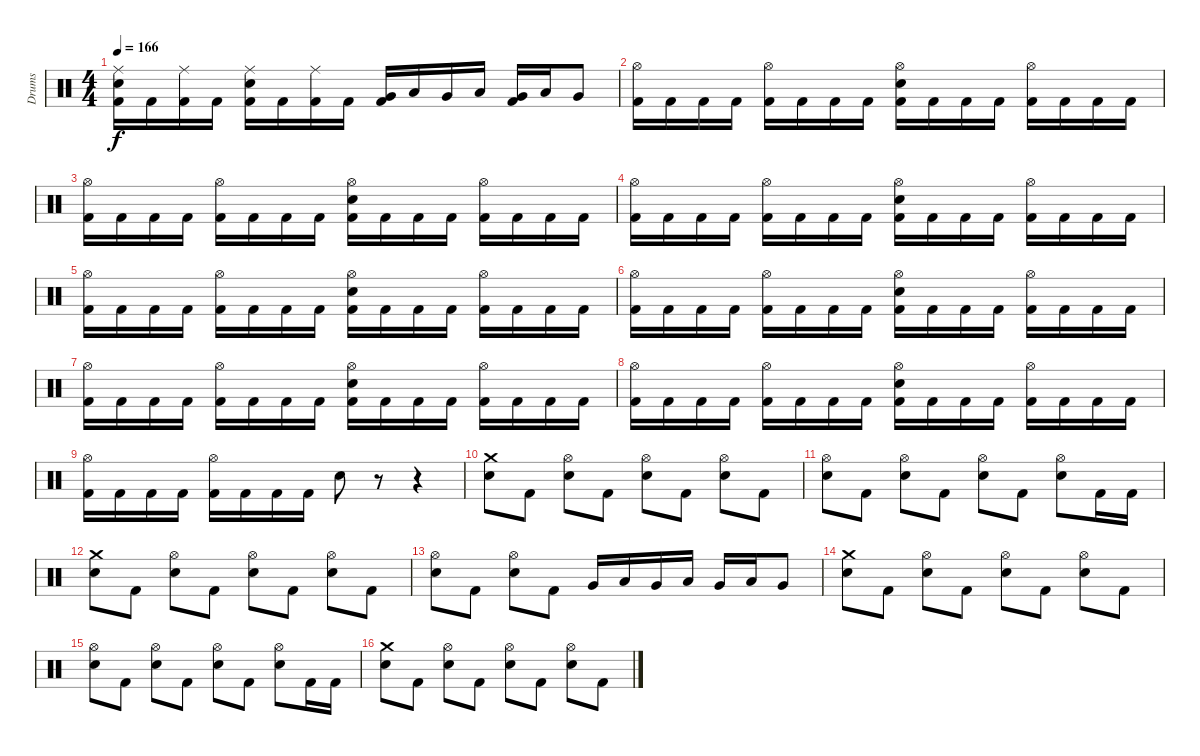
\track ("Drums" "Drums") {instrument percussion}
\staff {score}
\articulation defaults
\ts (4 4)
\tempo 166
\clef neutral
\ks c
("Ride (middle)" "Snare (hit) 2" "Kick (hit) 2").16{dy f} "Kick (hit) 2".16 ("Ride (middle)" "Kick (hit) 2").16 "Kick (hit) 2".16 ("Ride (middle)" "Snare (hit) 2" "Kick (hit) 2").16 "Kick (hit) 2".16 ("Ride (middle)" "Kick (hit) 2").16 "Kick (hit) 2".16 ("Very Low Tom (hit)" "Kick (hit) 2").16 "Low Tom (hit)".16 "Very Low Tom (hit)".16 "Low Tom (hit)".16 ("Very Low Tom (hit)" "Kick (hit) 2").16 "Low Tom (hit)".16 "Very Low Tom (hit)".8 |
("Hi-Hat (open)" "Kick (hit) 2").16 "Kick (hit) 2".16 "Kick (hit) 2".16 "Kick (hit) 2".16 ("Hi-Hat (open)" "Kick (hit) 2").16 "Kick (hit) 2".16 "Kick (hit) 2".16 "Kick (hit) 2".16 ("Hi-Hat (open)" "Snare (hit) 2" "Kick (hit) 2").16 "Kick (hit) 2".16 "Kick (hit) 2".16 "Kick (hit) 2".16 ("Hi-Hat (open)" "Kick (hit) 2").16 "Kick (hit) 2".16 "Kick (hit) 2".16 "Kick (hit) 2".16 |
("Hi-Hat (open)" "Kick (hit) 2").16 "Kick (hit) 2".16 "Kick (hit) 2".16 "Kick (hit) 2".16 ("Hi-Hat (open)" "Kick (hit) 2").16 "Kick (hit) 2".16 "Kick (hit) 2".16 "Kick (hit) 2".16 ("Hi-Hat (open)" "Snare (hit) 2" "Kick (hit) 2").16 "Kick (hit) 2".16 "Kick (hit) 2".16 "Kick (hit) 2".16 ("Hi-Hat (open)" "Kick (hit) 2").16 "Kick (hit) 2".16 "Kick (hit) 2".16 "Kick (hit) 2".16 |
("Hi-Hat (open)" "Kick (hit) 2").16 "Kick (hit) 2".16 "Kick (hit) 2".16 "Kick (hit) 2".16 ("Hi-Hat (open)" "Kick (hit) 2").16 "Kick (hit) 2".16 "Kick (hit) 2".16 "Kick (hit) 2".16 ("Hi-Hat (open)" "Snare (hit) 2" "Kick (hit) 2").16 "Kick (hit) 2".16 "Kick (hit) 2".16 "Kick (hit) 2".16 ("Hi-Hat (open)" "Kick (hit) 2").16 "Kick (hit) 2".16 "Kick (hit) 2".16 "Kick (hit) 2".16 |
("Hi-Hat (open)" "Kick (hit) 2").16 "Kick (hit) 2".16 "Kick (hit) 2".16 "Kick (hit) 2".16 ("Hi-Hat (open)" "Kick (hit) 2").16 "Kick (hit) 2".16 "Kick (hit) 2".16 "Kick (hit) 2".16 ("Hi-Hat (open)" "Snare (hit) 2" "Kick (hit) 2").16 "Kick (hit) 2".16 "Kick (hit) 2".16 "Kick (hit) 2".16 ("Hi-Hat (open)" "Kick (hit) 2").16 "Kick (hit) 2".16 "Kick (hit) 2".16 "Kick (hit) 2".16 |
("Hi-Hat (open)" "Kick (hit) 2").16 "Kick (hit) 2".16 "Kick (hit) 2".16 "Kick (hit) 2".16 ("Hi-Hat (open)" "Kick (hit) 2").16 "Kick (hit) 2".16 "Kick (hit) 2".16 "Kick (hit) 2".16 ("Hi-Hat (open)" "Snare (hit) 2" "Kick (hit) 2").16 "Kick (hit) 2".16 "Kick (hit) 2".16 "Kick (hit) 2".16 ("Hi-Hat (open)" "Kick (hit) 2").16 "Kick (hit) 2".16 "Kick (hit) 2".16 "Kick (hit) 2".16 |
("Hi-Hat (open)" "Kick (hit) 2").16 "Kick (hit) 2".16 "Kick (hit) 2".16 "Kick (hit) 2".16 ("Hi-Hat (open)" "Kick (hit) 2").16 "Kick (hit) 2".16 "Kick (hit) 2".16 "Kick (hit) 2".16 ("Hi-Hat (open)" "Snare (hit) 2" "Kick (hit) 2").16 "Kick (hit) 2".16 "Kick (hit) 2".16 "Kick (hit) 2".16 ("Hi-Hat (open)" "Kick (hit) 2").16 "Kick (hit) 2".16 "Kick (hit) 2".16 "Kick (hit) 2".16 |
("Hi-Hat (open)" "Kick (hit) 2").16 "Kick (hit) 2".16 "Kick (hit) 2".16 "Kick (hit) 2".16 ("Hi-Hat (open)" "Kick (hit) 2").16 "Kick (hit) 2".16 "Kick (hit) 2".16 "Kick (hit) 2".16 ("Hi-Hat (open)" "Snare (hit) 2" "Kick (hit) 2").16 "Kick (hit) 2".16 "Kick (hit) 2".16 "Kick (hit) 2".16 ("Hi-Hat (open)" "Kick (hit) 2").16 "Kick (hit) 2".16 "Kick (hit) 2".16 "Kick (hit) 2".16 |
("Hi-Hat (open)" "Kick (hit) 2").16 "Kick (hit) 2".16 "Kick (hit) 2".16 "Kick (hit) 2".16 ("Hi-Hat (open)" "Kick (hit) 2").16 "Kick (hit) 2".16 "Kick (hit) 2".16 "Kick (hit) 2".16 "Snare (hit) 2".8 r.8 r.4 |
("Crash medium (hit)" "Snare (hit) 2").8 "Kick (hit) 2".8 ("Hi-Hat (open)" "Snare (hit) 2").8 "Kick (hit) 2".8 ("Hi-Hat (open)" "Snare (hit) 2").8 "Kick (hit) 2".8 ("Hi-Hat (open)" "Snare (hit) 2").8 "Kick (hit) 2".8 |
("Hi-Hat (open)" "Snare (hit) 2").8 "Kick (hit) 2".8 ("Hi-Hat (open)" "Snare (hit) 2").8 "Kick (hit) 2".8 ("Hi-Hat (open)" "Snare (hit) 2").8 "Kick (hit) 2".8 ("Hi-Hat (open)" "Snare (hit) 2").8 "Kick (hit) 2".16 "Kick (hit) 2".16 |
("Crash medium (hit)" "Snare (hit) 2").8 "Kick (hit) 2".8 ("Hi-Hat (open)" "Snare (hit) 2").8 "Kick (hit) 2".8 ("Hi-Hat (open)" "Snare (hit) 2").8 "Kick (hit) 2".8 ("Hi-Hat (open)" "Snare (hit) 2").8 "Kick (hit) 2".8 |
("Hi-Hat (open)" "Snare (hit) 2").8 "Kick (hit) 2".8 ("Hi-Hat (open)" "Snare (hit) 2").8 "Kick (hit) 2".8 "Very Low Tom (hit)".16 "Low Tom (hit)".16 "Very Low Tom (hit)".16 "Low Tom (hit)".16 "Very Low Tom (hit)".16 "Low Tom (hit)".16 "Very Low Tom (hit)".8 |
("Crash medium (hit)" "Snare (hit) 2").8 "Kick (hit) 2".8 ("Hi-Hat (open)" "Snare (hit) 2").8 "Kick (hit) 2".8 ("Hi-Hat (open)" "Snare (hit) 2").8 "Kick (hit) 2".8 ("Hi-Hat (open)" "Snare (hit) 2").8 "Kick (hit) 2".8 |
("Hi-Hat (open)" "Snare (hit) 2").8 "Kick (hit) 2".8 ("Hi-Hat (open)" "Snare (hit) 2").8 "Kick (hit) 2".8 ("Hi-Hat (open)" "Snare (hit) 2").8 "Kick (hit) 2".8 ("Hi-Hat (open)" "Snare (hit) 2").8 "Kick (hit) 2".16 "Kick (hit) 2".16 |
("Crash medium (hit)" "Snare (hit) 2").8 "Kick (hit) 2".8 ("Hi-Hat (open)" "Snare (hit) 2").8 "Kick (hit) 2".8 ("Hi-Hat (open)" "Snare (hit) 2").8 "Kick (hit) 2".8 ("Hi-Hat (open)" "Snare (hit) 2").8 "Kick (hit) 2".8
